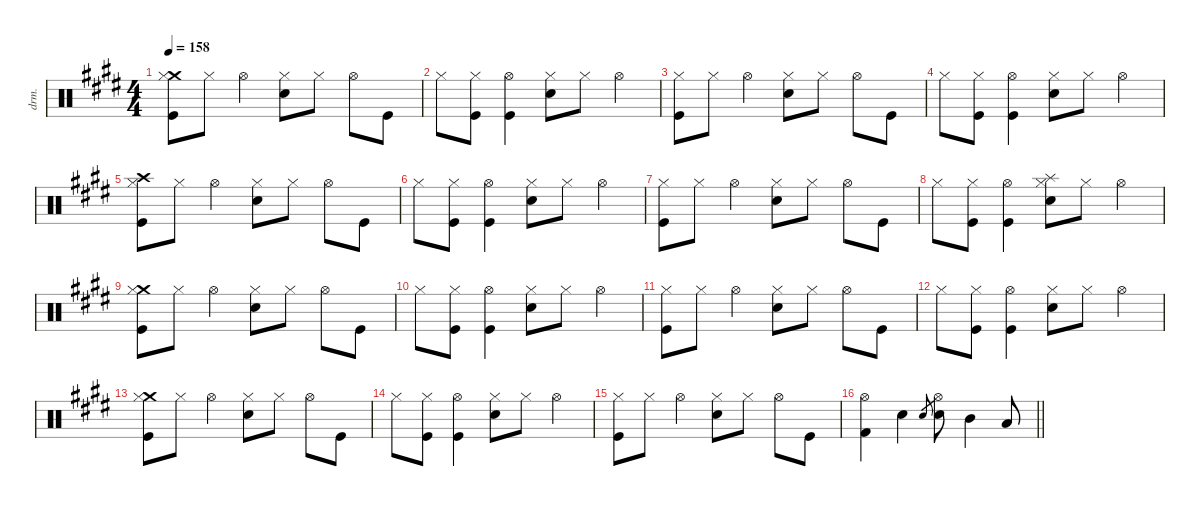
\defaultSystemsLayout 4
\hideDynamics
\bracketExtendMode groupsimilarinstruments
\otherSystemsTrackNameOrientation horizontal
\track ("Drums" "drm.") {defaultSystemsLayout 4 instrument percussion}
\staff {score}
\articulation defaults
\ts (4 4)
\tempo 158
\clef neutral
\ks c#minor
("Crash medium (hit)"{acc forcenatural} "Hi-Hat (closed)"{acc forcenatural} "Kick (hit)"{acc forcenatural}).8{dy f beam Down} "Hi-Hat (closed)"{acc forcenatural}.8{dy mf beam Down} "Hi-Hat (open)"{acc forcenatural}.4{dy f beam Down} ("Hi-Hat (closed)"{acc forcenatural} "Snare (hit) 2"{acc forcenatural}).8{beam Down} "Hi-Hat (closed)"{acc forcenatural}.8{dy mf beam Down} "Hi-Hat (open)"{acc forcenatural}.8{dy f beam Down} "Kick (hit)"{acc forcenatural}.8{beam Down} |
"Hi-Hat (closed)"{acc forcenatural}.8{beam Down} ("Hi-Hat (closed)"{acc forcenatural} "Kick (hit)"{acc forcenatural}).8{dy mf beam Down} ("Hi-Hat (open)"{acc forcenatural} "Kick (hit)"{acc forcenatural}).4{dy f beam Down} ("Hi-Hat (closed)"{acc forcenatural} "Snare (hit) 2"{acc forcenatural}).8{beam Down} "Hi-Hat (closed)"{acc forcenatural}.8{dy mf beam Down} "Hi-Hat (open)"{acc forcenatural}.4{dy f beam Down} |
("Hi-Hat (closed)"{acc forcenatural} "Kick (hit)"{acc forcenatural}).8{beam Down} "Hi-Hat (closed)"{acc forcenatural}.8{dy mf beam Down} "Hi-Hat (open)"{acc forcenatural}.4{dy f beam Down} ("Hi-Hat (closed)"{acc forcenatural} "Snare (hit) 2"{acc forcenatural}).8{beam Down} "Hi-Hat (closed)"{acc forcenatural}.8{dy mf beam Down} "Hi-Hat (open)"{acc forcenatural}.8{dy f beam Down} "Kick (hit)"{acc forcenatural}.8{beam Down} |
"Hi-Hat (closed)"{acc forcenatural}.8{beam Down} ("Hi-Hat (closed)"{acc forcenatural} "Kick (hit)"{acc forcenatural}).8{dy mf beam Down} ("Hi-Hat (open)"{acc forcenatural} "Kick (hit)"{acc forcenatural}).4{dy f beam Down} ("Hi-Hat (closed)"{acc forcenatural} "Snare (hit) 2"{acc forcenatural}).8{beam Down} "Hi-Hat (closed)"{acc forcenatural}.8{dy mf beam Down} "Hi-Hat (open)"{acc forcenatural}.4{dy f beam Down} |
("Kick (hit)"{acc forcenatural} "Hi-Hat (closed)"{acc forcenatural} "Crash high (hit)"{acc forcenatural}).8{beam Down} "Hi-Hat (closed)"{acc forcenatural}.8{dy mf beam Down} "Hi-Hat (open)"{acc forcenatural}.4{dy f beam Down} ("Hi-Hat (closed)"{acc forcenatural} "Snare (hit) 2"{acc forcenatural}).8{beam Down} "Hi-Hat (closed)"{acc forcenatural}.8{dy mf beam Down} "Hi-Hat (open)"{acc forcenatural}.8{dy f beam Down} "Kick (hit)"{acc forcenatural}.8{beam Down} |
"Hi-Hat (closed)"{acc forcenatural}.8{beam Down} ("Hi-Hat (closed)"{acc forcenatural} "Kick (hit)"{acc forcenatural}).8{dy mf beam Down} ("Hi-Hat (open)"{acc forcenatural} "Kick (hit)"{acc forcenatural}).4{dy f beam Down} ("Hi-Hat (closed)"{acc forcenatural} "Snare (hit) 2"{acc forcenatural}).8{beam Down} "Hi-Hat (closed)"{acc forcenatural}.8{dy mf beam Down} "Hi-Hat (open)"{acc forcenatural}.4{dy f beam Down} |
("Hi-Hat (closed)"{acc forcenatural} "Kick (hit)"{acc forcenatural}).8{beam Down} "Hi-Hat (closed)"{acc forcenatural}.8{dy mf beam Down} "Hi-Hat (open)"{acc forcenatural}.4{dy f beam Down} ("Hi-Hat (closed)"{acc forcenatural} "Snare (hit) 2"{acc forcenatural}).8{beam Down} "Hi-Hat (closed)"{acc forcenatural}.8{dy mf beam Down} "Hi-Hat (open)"{acc forcenatural}.8{dy f beam Down} "Kick (hit)"{acc forcenatural}.8{beam Down} |
"Hi-Hat (closed)"{acc forcenatural}.8{beam Down} ("Hi-Hat (closed)"{acc forcenatural} "Kick (hit)"{acc forcenatural}).8{dy mf beam Down} ("Hi-Hat (open)"{acc forcenatural} "Kick (hit)"{acc forcenatural}).4{dy f beam Down} ("Splash (hit)"{acc forcenatural} "Hi-Hat (closed)"{acc forcenatural} "Snare (hit) 2"{acc forcenatural}).8{beam Down} "Hi-Hat (closed)"{acc forcenatural}.8{dy mf beam Down} "Hi-Hat (open)"{acc forcenatural}.4{dy f beam Down} |
("Crash medium (hit)"{acc forcenatural} "Hi-Hat (closed)"{acc forcenatural} "Kick (hit)"{acc forcenatural}).8{beam Down} "Hi-Hat (closed)"{acc forcenatural}.8{dy mf beam Down} "Hi-Hat (open)"{acc forcenatural}.4{dy f beam Down} ("Hi-Hat (closed)"{acc forcenatural} "Snare (hit) 2"{acc forcenatural}).8{beam Down} "Hi-Hat (closed)"{acc forcenatural}.8{dy mf beam Down} "Hi-Hat (open)"{acc forcenatural}.8{dy f beam Down} "Kick (hit)"{acc forcenatural}.8{beam Down} |
"Hi-Hat (closed)"{acc forcenatural}.8{beam Down} ("Hi-Hat (closed)"{acc forcenatural} "Kick (hit)"{acc forcenatural}).8{dy mf beam Down} ("Hi-Hat (open)"{acc forcenatural} "Kick (hit)"{acc forcenatural}).4{dy f beam Down} ("Hi-Hat (closed)"{acc forcenatural} "Snare (hit) 2"{acc forcenatural}).8{beam Down} "Hi-Hat (closed)"{acc forcenatural}.8{dy mf beam Down} "Hi-Hat (open)"{acc forcenatural}.4{dy f beam Down} |
("Hi-Hat (closed)"{acc forcenatural} "Kick (hit)"{acc forcenatural}).8{beam Down} "Hi-Hat (closed)"{acc forcenatural}.8{dy mf beam Down} "Hi-Hat (open)"{acc forcenatural}.4{dy f beam Down} ("Hi-Hat (closed)"{acc forcenatural} "Snare (hit) 2"{acc forcenatural}).8{beam Down} "Hi-Hat (closed)"{acc forcenatural}.8{dy mf beam Down} "Hi-Hat (open)"{acc forcenatural}.8{dy f beam Down} "Kick (hit)"{acc forcenatural}.8{beam Down} |
"Hi-Hat (closed)"{acc forcenatural}.8{beam Down} ("Hi-Hat (closed)"{acc forcenatural} "Kick (hit)"{acc forcenatural}).8{dy mf beam Down} ("Hi-Hat (open)"{acc forcenatural} "Kick (hit)"{acc forcenatural}).4{dy f beam Down} ("Hi-Hat (closed)"{acc forcenatural} "Snare (hit) 2"{acc forcenatural}).8{beam Down} "Hi-Hat (closed)"{acc forcenatural}.8{dy mf beam Down} "Hi-Hat (open)"{acc forcenatural}.4{dy f beam Down} |
("Crash medium (hit)"{acc forcenatural} "Hi-Hat (closed)"{acc forcenatural} "Kick (hit)"{acc forcenatural}).8{beam Down} "Hi-Hat (closed)"{acc forcenatural}.8{dy mf beam Down} "Hi-Hat (open)"{acc forcenatural}.4{dy f beam Down} ("Hi-Hat (closed)"{acc forcenatural} "Snare (hit) 2"{acc forcenatural}).8{beam Down} "Hi-Hat (closed)"{acc forcenatural}.8{dy mf beam Down} "Hi-Hat (open)"{acc forcenatural}.8{dy f beam Down} "Kick (hit)"{acc forcenatural}.8{beam Down} |
"Hi-Hat (closed)"{acc forcenatural}.8{beam Down} ("Hi-Hat (closed)"{acc forcenatural} "Kick (hit)"{acc forcenatural}).8{dy mf beam Down} ("Hi-Hat (open)"{acc forcenatural} "Kick (hit)"{acc forcenatural}).4{dy f beam Down} ("Hi-Hat (closed)"{acc forcenatural} "Snare (hit) 2"{acc forcenatural}).8{beam Down} "Hi-Hat (closed)"{acc forcenatural}.8{dy mf beam Down} "Hi-Hat (open)"{acc forcenatural}.4{dy f beam Down} |
("Hi-Hat (closed)"{acc forcenatural} "Kick (hit)"{acc forcenatural}).8{beam Down} "Hi-Hat (closed)"{acc forcenatural}.8{dy mf beam Down} "Hi-Hat (open)"{acc forcenatural}.4{dy f beam Down} ("Hi-Hat (closed)"{acc forcenatural} "Snare (hit) 2"{acc forcenatural}).8{beam Down} "Hi-Hat (closed)"{acc forcenatural}.8{dy mf beam Down} "Hi-Hat (open)"{acc forcenatural}.8{dy f beam Down} "Kick (hit)"{acc forcenatural}.8{beam Down} |
\barLineRight lightlight
("Hi-Hat (open)"{acc forcenatural} "Kick (hit) 2"{acc forcenatural}).4{beam Down} "Snare (hit) 2"{acc forcenatural}.4{beam Down} "Electric Snare (hit)"{acc forcenatural}.8{gr dy p beam Up} ("Hi-Hat (open)"{acc forcenatural} "Snare (hit) 2"{acc forcenatural}).8{dy f beam Down} "Mid Tom (hit)"{acc forcenatural}.4{dy fff beam Down} "Low Tom (hit)"{acc forcenatural}.8{beam Up}
